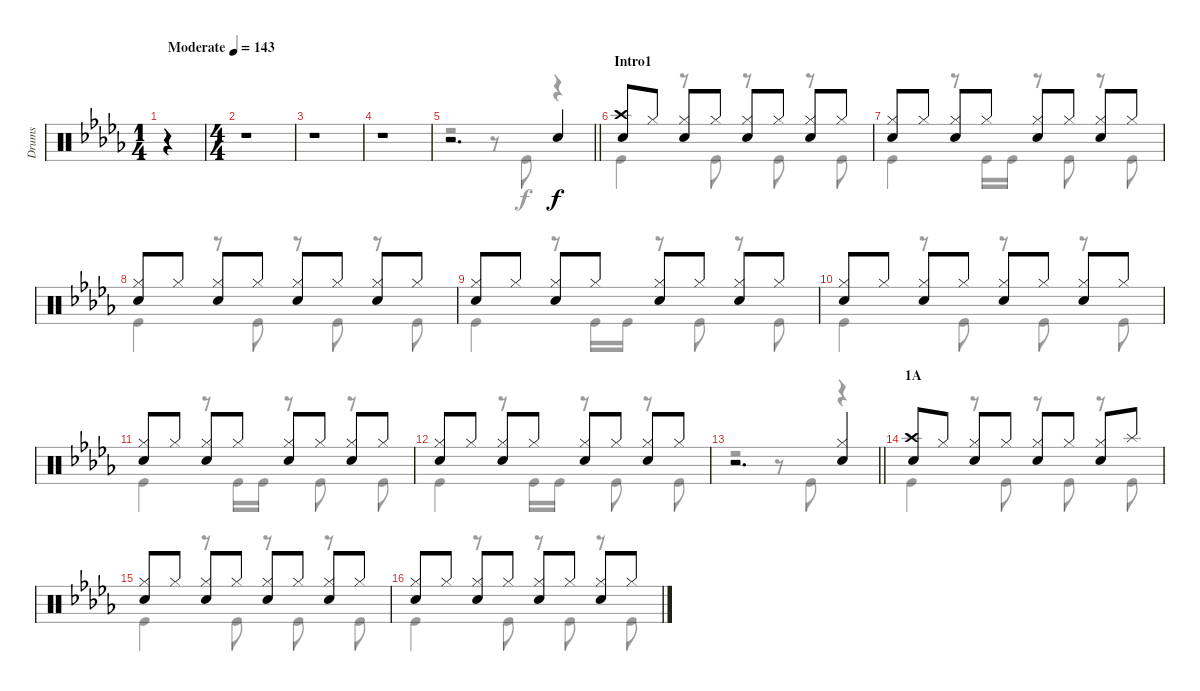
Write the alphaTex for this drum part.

\track ("Drums" "Drums") {instrument percussion}
\staff {score}
\articulation defaults
\voice
\ts (1 4)
\tempo (143 "Moderate")
\clef neutral
\ks db
r.4{dy f} |
\ts (4 4)
r.1 |
r.1 |
r.1 |
\barLineRight lightlight
r.2{d} "Snare (hit) 2".4 |
\section ("" "Intro1")
("Crash high (hit)" "Snare (hit) 2").8 "Hi-Hat (closed)".8 ("Hi-Hat (closed)" "Snare (hit) 2").8 "Hi-Hat (closed)".8 ("Hi-Hat (closed)" "Snare (hit) 2").8 "Hi-Hat (closed)".8 ("Hi-Hat (closed)" "Snare (hit) 2").8 "Hi-Hat (closed)".8 |
("Hi-Hat (closed)" "Snare (hit) 2").8 "Hi-Hat (closed)".8 ("Hi-Hat (closed)" "Snare (hit) 2").8 "Hi-Hat (closed)".8 ("Hi-Hat (closed)" "Snare (hit) 2").8 "Hi-Hat (closed)".8 ("Hi-Hat (closed)" "Snare (hit) 2").8 "Hi-Hat (closed)".8 |
("Hi-Hat (closed)" "Snare (hit) 2").8 "Hi-Hat (closed)".8 ("Hi-Hat (closed)" "Snare (hit) 2").8 "Hi-Hat (closed)".8 ("Hi-Hat (closed)" "Snare (hit) 2").8 "Hi-Hat (closed)".8 ("Hi-Hat (closed)" "Snare (hit) 2").8 "Hi-Hat (closed)".8 |
("Hi-Hat (closed)" "Snare (hit) 2").8 "Hi-Hat (closed)".8 ("Hi-Hat (closed)" "Snare (hit) 2").8 "Hi-Hat (closed)".8 ("Hi-Hat (closed)" "Snare (hit) 2").8 "Hi-Hat (closed)".8 ("Hi-Hat (closed)" "Snare (hit) 2").8 "Hi-Hat (closed)".8 |
("Hi-Hat (closed)" "Snare (hit) 2").8 "Hi-Hat (closed)".8 ("Hi-Hat (closed)" "Snare (hit) 2").8 "Hi-Hat (closed)".8 ("Hi-Hat (closed)" "Snare (hit) 2").8 "Hi-Hat (closed)".8 ("Hi-Hat (closed)" "Snare (hit) 2").8 "Hi-Hat (closed)".8 |
("Hi-Hat (closed)" "Snare (hit) 2").8 "Hi-Hat (closed)".8 ("Hi-Hat (closed)" "Snare (hit) 2").8 "Hi-Hat (closed)".8 ("Hi-Hat (closed)" "Snare (hit) 2").8 "Hi-Hat (closed)".8 ("Hi-Hat (closed)" "Snare (hit) 2").8 "Hi-Hat (closed)".8 |
("Hi-Hat (closed)" "Snare (hit) 2").8 "Hi-Hat (closed)".8 ("Hi-Hat (closed)" "Snare (hit) 2").8 "Hi-Hat (closed)".8 ("Hi-Hat (closed)" "Snare (hit) 2").8 "Hi-Hat (closed)".8 ("Hi-Hat (closed)" "Snare (hit) 2").8 "Hi-Hat (closed)".8 |
\barLineRight lightlight
r.2{d} ("Hi-Hat (closed)" "Snare (hit) 2").4 |
\section ("" "1A")
("Crash high (hit)" "Snare (hit) 2").8 "Hi-Hat (closed)".8 ("Hi-Hat (closed)" "Snare (hit) 2").8 "Hi-Hat (closed)".8 ("Hi-Hat (closed)" "Snare (hit) 2").8 "Hi-Hat (closed)".8 ("Hi-Hat (closed)" "Snare (hit) 2").8 "Splash (hit)".8 |
("Hi-Hat (closed)" "Snare (hit) 2").8 "Hi-Hat (closed)".8 ("Hi-Hat (closed)" "Snare (hit) 2").8 "Hi-Hat (closed)".8 ("Hi-Hat (closed)" "Snare (hit) 2").8 "Hi-Hat (closed)".8 ("Hi-Hat (closed)" "Snare (hit) 2").8 "Hi-Hat (closed)".8 |
("Hi-Hat (closed)" "Snare (hit) 2").8 "Hi-Hat (closed)".8 ("Hi-Hat (closed)" "Snare (hit) 2").8 "Hi-Hat (closed)".8 ("Hi-Hat (closed)" "Snare (hit) 2").8 "Hi-Hat (closed)".8 ("Hi-Hat (closed)" "Snare (hit) 2").8 "Hi-Hat (closed)".8
\voice
\clef neutral
\ottava regular
\simile none
\ks db
r.4{dy f} |
r.1 |
r.1 |
r.1 |
\barLineRight lightlight
r.2 r.8 "Kick (hit)".8 r.4 |
"Kick (hit)".4 r.8 "Kick (hit)".8 r.8 "Kick (hit)".8 r.8 "Kick (hit)".8 |
"Kick (hit)".4 r.8 "Kick (hit)".16 "Kick (hit)".16 r.8 "Kick (hit)".8 r.8 "Kick (hit)".8 |
"Kick (hit)".4 r.8 "Kick (hit)".8 r.8 "Kick (hit)".8 r.8 "Kick (hit)".8 |
"Kick (hit)".4 r.8 "Kick (hit)".16 "Kick (hit)".16 r.8 "Kick (hit)".8 r.8 "Kick (hit)".8 |
"Kick (hit)".4 r.8 "Kick (hit)".8 r.8 "Kick (hit)".8 r.8 "Kick (hit)".8 |
"Kick (hit)".4 r.8 "Kick (hit)".16 "Kick (hit)".16 r.8 "Kick (hit)".8 r.8 "Kick (hit)".8 |
"Kick (hit)".4 r.8 "Kick (hit)".16 "Kick (hit)".16 r.8 "Kick (hit)".8 r.8 "Kick (hit)".8 |
\barLineRight lightlight
r.2 r.8 "Kick (hit)".8 r.4 |
"Kick (hit)".4 r.8 "Kick (hit)".8 r.8 "Kick (hit)".8 r.8 "Kick (hit)".8 |
"Kick (hit)".4 r.8 "Kick (hit)".8 r.8 "Kick (hit)".8 r.8 "Kick (hit)".8 |
"Kick (hit)".4 r.8 "Kick (hit)".8 r.8 "Kick (hit)".8 r.8 "Kick (hit)".8
